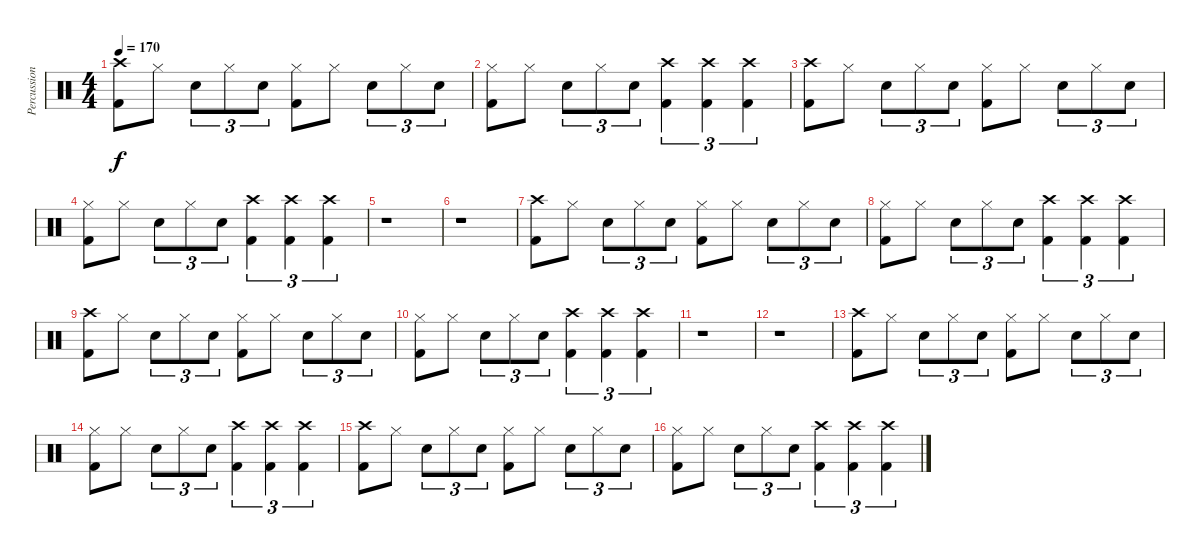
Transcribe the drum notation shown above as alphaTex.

\track ("Percussion" "Percussion") {instrument percussion}
\staff {score}
\articulation defaults
\ts (4 4)
\tempo 170
\clef neutral
\ks c
("Crash high (hit)" "Kick (hit) 2").8{dy f} "Hi-Hat (closed)".8 "Snare (hit) 2".8{tu (3 2)} "Hi-Hat (closed)".8{tu (3 2)} "Snare (hit) 2".8{tu (3 2)} ("Hi-Hat (closed)" "Kick (hit) 2").8 "Hi-Hat (closed)".8 "Snare (hit) 2".8{tu (3 2)} "Hi-Hat (closed)".8{tu (3 2)} "Snare (hit) 2".8{tu (3 2)} |
("Hi-Hat (closed)" "Kick (hit) 2").8 "Hi-Hat (closed)".8 "Snare (hit) 2".8{tu (3 2)} "Hi-Hat (closed)".8{tu (3 2)} "Snare (hit) 2".8{tu (3 2)} ("Crash high (hit)" "Kick (hit) 2").4{tu (3 2)} ("Crash high (hit)" "Kick (hit) 2").4{tu (3 2)} ("Crash high (hit)" "Kick (hit) 2").4{tu (3 2)} |
("Crash high (hit)" "Kick (hit) 2").8 "Hi-Hat (closed)".8 "Snare (hit) 2".8{tu (3 2)} "Hi-Hat (closed)".8{tu (3 2)} "Snare (hit) 2".8{tu (3 2)} ("Hi-Hat (closed)" "Kick (hit) 2").8 "Hi-Hat (closed)".8 "Snare (hit) 2".8{tu (3 2)} "Hi-Hat (closed)".8{tu (3 2)} "Snare (hit) 2".8{tu (3 2)} |
("Hi-Hat (closed)" "Kick (hit) 2").8 "Hi-Hat (closed)".8 "Snare (hit) 2".8{tu (3 2)} "Hi-Hat (closed)".8{tu (3 2)} "Snare (hit) 2".8{tu (3 2)} ("Crash high (hit)" "Kick (hit) 2").4{tu (3 2)} ("Crash high (hit)" "Kick (hit) 2").4{tu (3 2)} ("Crash high (hit)" "Kick (hit) 2").4{tu (3 2)} |
r.1 |
r.1 |
("Crash high (hit)" "Kick (hit) 2").8 "Hi-Hat (closed)".8 "Snare (hit) 2".8{tu (3 2)} "Hi-Hat (closed)".8{tu (3 2)} "Snare (hit) 2".8{tu (3 2)} ("Hi-Hat (closed)" "Kick (hit) 2").8 "Hi-Hat (closed)".8 "Snare (hit) 2".8{tu (3 2)} "Hi-Hat (closed)".8{tu (3 2)} "Snare (hit) 2".8{tu (3 2)} |
("Hi-Hat (closed)" "Kick (hit) 2").8 "Hi-Hat (closed)".8 "Snare (hit) 2".8{tu (3 2)} "Hi-Hat (closed)".8{tu (3 2)} "Snare (hit) 2".8{tu (3 2)} ("Crash high (hit)" "Kick (hit) 2").4{tu (3 2)} ("Crash high (hit)" "Kick (hit) 2").4{tu (3 2)} ("Crash high (hit)" "Kick (hit) 2").4{tu (3 2)} |
("Crash high (hit)" "Kick (hit) 2").8 "Hi-Hat (closed)".8 "Snare (hit) 2".8{tu (3 2)} "Hi-Hat (closed)".8{tu (3 2)} "Snare (hit) 2".8{tu (3 2)} ("Hi-Hat (closed)" "Kick (hit) 2").8 "Hi-Hat (closed)".8 "Snare (hit) 2".8{tu (3 2)} "Hi-Hat (closed)".8{tu (3 2)} "Snare (hit) 2".8{tu (3 2)} |
("Hi-Hat (closed)" "Kick (hit) 2").8 "Hi-Hat (closed)".8 "Snare (hit) 2".8{tu (3 2)} "Hi-Hat (closed)".8{tu (3 2)} "Snare (hit) 2".8{tu (3 2)} ("Crash high (hit)" "Kick (hit) 2").4{tu (3 2)} ("Crash high (hit)" "Kick (hit) 2").4{tu (3 2)} ("Crash high (hit)" "Kick (hit) 2").4{tu (3 2)} |
r.1 |
r.1 |
("Crash high (hit)" "Kick (hit) 2").8 "Hi-Hat (closed)".8 "Snare (hit) 2".8{tu (3 2)} "Hi-Hat (closed)".8{tu (3 2)} "Snare (hit) 2".8{tu (3 2)} ("Hi-Hat (closed)" "Kick (hit) 2").8 "Hi-Hat (closed)".8 "Snare (hit) 2".8{tu (3 2)} "Hi-Hat (closed)".8{tu (3 2)} "Snare (hit) 2".8{tu (3 2)} |
("Hi-Hat (closed)" "Kick (hit) 2").8 "Hi-Hat (closed)".8 "Snare (hit) 2".8{tu (3 2)} "Hi-Hat (closed)".8{tu (3 2)} "Snare (hit) 2".8{tu (3 2)} ("Crash high (hit)" "Kick (hit) 2").4{tu (3 2)} ("Crash high (hit)" "Kick (hit) 2").4{tu (3 2)} ("Crash high (hit)" "Kick (hit) 2").4{tu (3 2)} |
("Crash high (hit)" "Kick (hit) 2").8 "Hi-Hat (closed)".8 "Snare (hit) 2".8{tu (3 2)} "Hi-Hat (closed)".8{tu (3 2)} "Snare (hit) 2".8{tu (3 2)} ("Hi-Hat (closed)" "Kick (hit) 2").8 "Hi-Hat (closed)".8 "Snare (hit) 2".8{tu (3 2)} "Hi-Hat (closed)".8{tu (3 2)} "Snare (hit) 2".8{tu (3 2)} |
("Hi-Hat (closed)" "Kick (hit) 2").8 "Hi-Hat (closed)".8 "Snare (hit) 2".8{tu (3 2)} "Hi-Hat (closed)".8{tu (3 2)} "Snare (hit) 2".8{tu (3 2)} ("Crash high (hit)" "Kick (hit) 2").4{tu (3 2)} ("Crash high (hit)" "Kick (hit) 2").4{tu (3 2)} ("Crash high (hit)" "Kick (hit) 2").4{tu (3 2)}
